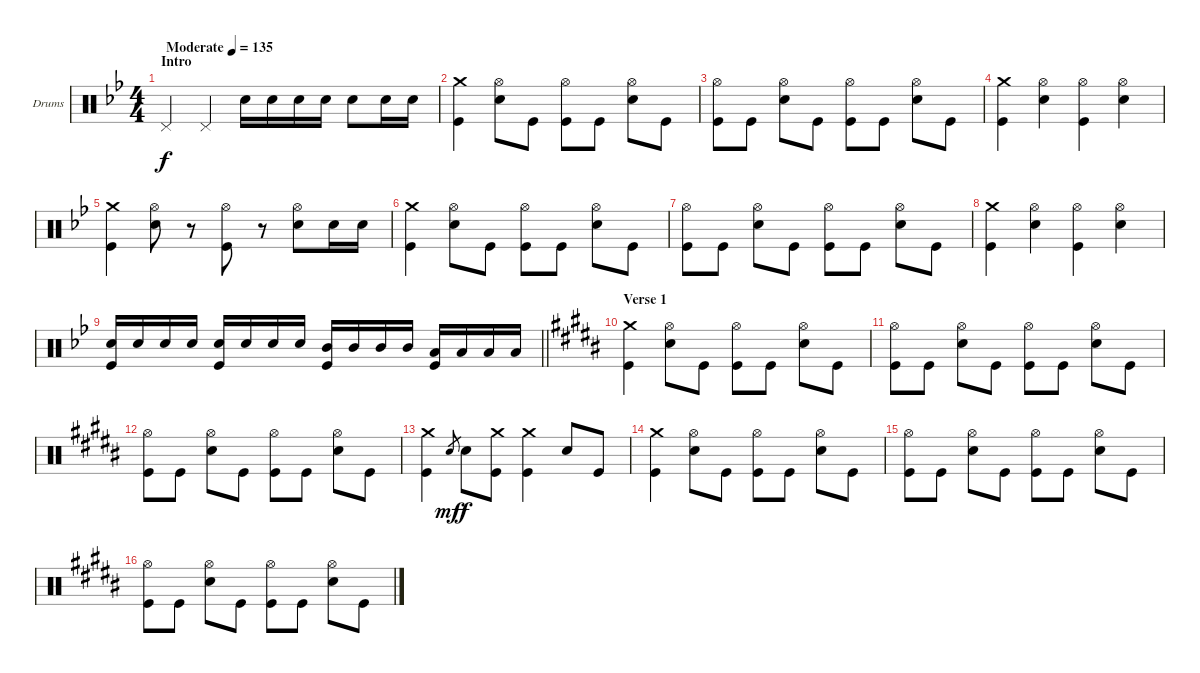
\bracketExtendMode groupsimilarinstruments
\firstSystemTrackNameOrientation horizontal
\otherSystemsTrackNameOrientation horizontal
\track ("Drumkit" "Drums") {multiBarRest instrument percussion}
\staff {score}
\articulation defaults
\ts (4 4)
\beaming (8 2 2 2 2)
\section ("" "Intro")
\tempo (135 "Moderate")
\clef neutral
\ks bb "Pedal Hi-Hat (hit)".4{dy f} "Pedal Hi-Hat (hit)".4 "Snare (hit) 2".16 "Snare (hit) 2".16 "Snare (hit) 2".16 "Snare (hit) 2".16 "Snare (hit) 2".8 "Snare (hit) 2".16 "Snare (hit) 2".16
|
("Crash medium (hit)" "Kick (hit)").4 ("Snare (hit) 2" "Hi-Hat (open)").8 "Kick (hit)".8 ("Hi-Hat (open)" "Kick (hit)").8 "Kick (hit)".8 ("Hi-Hat (open)" "Snare (hit) 2").8 "Kick (hit)".8 |
("Hi-Hat (open)" "Kick (hit)").8 "Kick (hit)".8 ("Snare (hit) 2" "Hi-Hat (open)").8 "Kick (hit)".8 ("Hi-Hat (open)" "Kick (hit)").8 "Kick (hit)".8 ("Hi-Hat (open)" "Snare (hit) 2").8 "Kick (hit)".8 |
("Crash medium (hit)" "Kick (hit)").4 ("Hi-Hat (open)" "Snare (hit) 2").4 ("Hi-Hat (open)" "Kick (hit)").4 ("Hi-Hat (open)" "Snare (hit) 2").4 |
("Crash medium (hit)" "Kick (hit)").4 ("Snare (hit) 2" "Hi-Hat (open)").8 r.8 ("Hi-Hat (open)" "Kick (hit)").8 r.8 ("Hi-Hat (open)" "Snare (hit) 2").8 "Snare (hit) 2".16 "Snare (hit) 2".16 |
("Crash medium (hit)" "Kick (hit)").4 ("Snare (hit) 2" "Hi-Hat (open)").8 "Kick (hit)".8 ("Hi-Hat (open)" "Kick (hit)").8 "Kick (hit)".8 ("Hi-Hat (open)" "Snare (hit) 2").8 "Kick (hit)".8 |
("Hi-Hat (open)" "Kick (hit)").8 "Kick (hit)".8 ("Snare (hit) 2" "Hi-Hat (open)").8 "Kick (hit)".8 ("Hi-Hat (open)" "Kick (hit)").8 "Kick (hit)".8 ("Hi-Hat (open)" "Snare (hit) 2").8 "Kick (hit)".8 |
("Crash medium (hit)" "Kick (hit)").4 ("Hi-Hat (open)" "Snare (hit) 2").4 ("Hi-Hat (open)" "Kick (hit)").4 ("Hi-Hat (open)" "Snare (hit) 2").4 |
\barLineRight lightlight
("Snare (hit) 2" "Kick (hit)").16 "Snare (hit) 2".16 "Snare (hit) 2".16 "Snare (hit) 2".16 ("Snare (hit) 2" "Kick (hit)").16 "Snare (hit) 2".16 "Snare (hit) 2".16 "Snare (hit) 2".16 ("Mid Tom (hit)" "Kick (hit)").16 "Mid Tom (hit)".16 "Mid Tom (hit)".16 "Mid Tom (hit)".16 ("Low Tom (hit)" "Kick (hit)").16 "Low Tom (hit)".16 "Low Tom (hit)".16 "Low Tom (hit)".16 |
\section ("" "Verse 1")
\ks b
("Crash medium (hit)" "Kick (hit)").4 ("Snare (hit) 2" "Hi-Hat (open)").8 "Kick (hit)".8 ("Hi-Hat (open)" "Kick (hit)").8 "Kick (hit)".8 ("Snare (hit) 2" "Hi-Hat (open)").8 "Kick (hit)".8 |
("Hi-Hat (open)" "Kick (hit)").8 "Kick (hit)".8 ("Snare (hit) 2" "Hi-Hat (open)").8 "Kick (hit)".8 ("Hi-Hat (open)" "Kick (hit)").8 "Kick (hit)".8 ("Snare (hit) 2" "Hi-Hat (open)").8 "Kick (hit)".8 |
("Hi-Hat (open)" "Kick (hit)").8 "Kick (hit)".8 ("Snare (hit) 2" "Hi-Hat (open)").8 "Kick (hit)".8 ("Hi-Hat (open)" "Kick (hit)").8 "Kick (hit)".8 ("Snare (hit) 2" "Hi-Hat (open)").8 "Kick (hit)".8 |
("Crash medium (hit)" "Kick (hit)").4 "Snare (hit) 2".8{gr dy mf} "Snare (hit) 2".8{dy f} ("Crash medium (hit)" "Kick (hit)").8 ("Crash medium (hit)" "Kick (hit)").4 "Snare (hit) 2".8 "Kick (hit)".8 |
("Crash medium (hit)" "Kick (hit)").4 ("Snare (hit) 2" "Hi-Hat (open)").8 "Kick (hit)".8 ("Hi-Hat (open)" "Kick (hit)").8 "Kick (hit)".8 ("Snare (hit) 2" "Hi-Hat (open)").8 "Kick (hit)".8 |
("Hi-Hat (open)" "Kick (hit)").8 "Kick (hit)".8 ("Snare (hit) 2" "Hi-Hat (open)").8 "Kick (hit)".8 ("Hi-Hat (open)" "Kick (hit)").8 "Kick (hit)".8 ("Snare (hit) 2" "Hi-Hat (open)").8 "Kick (hit)".8 |
("Hi-Hat (open)" "Kick (hit)").8 "Kick (hit)".8 ("Snare (hit) 2" "Hi-Hat (open)").8 "Kick (hit)".8 ("Hi-Hat (open)" "Kick (hit)").8 "Kick (hit)".8 ("Snare (hit) 2" "Hi-Hat (open)").8 "Kick (hit)".8
